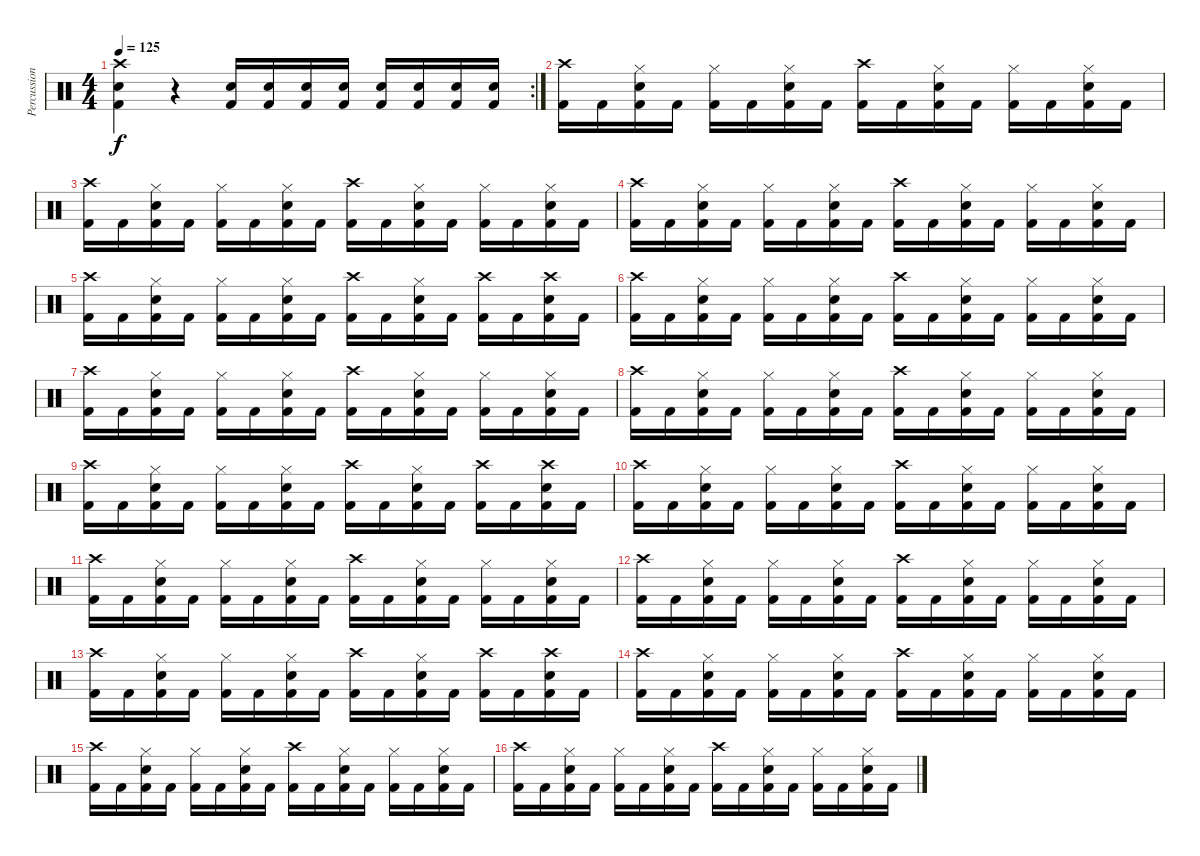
\track ("Percussion" "Percussion") {instrument percussion}
\staff {score}
\articulation defaults
\rc 2
\ts (4 4)
\tempo 125
\clef neutral
\ks c
("Crash high (hit)" "Snare (hit) 2" "Kick (hit) 2").4{dy f} r.4 ("Snare (hit) 2" "Kick (hit) 2").16 ("Snare (hit) 2" "Kick (hit) 2").16 ("Snare (hit) 2" "Kick (hit) 2").16 ("Snare (hit) 2" "Kick (hit) 2").16 ("Snare (hit) 2" "Kick (hit) 2").16 ("Snare (hit) 2" "Kick (hit) 2").16 ("Snare (hit) 2" "Kick (hit) 2").16 ("Snare (hit) 2" "Kick (hit) 2").16 |
("Crash high (hit)" "Kick (hit) 2").16 "Kick (hit) 2".16 ("Hi-Hat (closed)" "Snare (hit) 2" "Kick (hit) 2").16 "Kick (hit) 2".16 ("Hi-Hat (closed)" "Kick (hit) 2").16 "Kick (hit) 2".16 ("Hi-Hat (closed)" "Snare (hit) 2" "Kick (hit) 2").16 "Kick (hit) 2".16 ("Crash high (hit)" "Kick (hit) 2").16 "Kick (hit) 2".16 ("Hi-Hat (closed)" "Snare (hit) 2" "Kick (hit) 2").16 "Kick (hit) 2".16 ("Hi-Hat (closed)" "Kick (hit) 2").16 "Kick (hit) 2".16 ("Hi-Hat (closed)" "Snare (hit) 2" "Kick (hit) 2").16 "Kick (hit) 2".16 |
("Crash high (hit)" "Kick (hit) 2").16 "Kick (hit) 2".16 ("Hi-Hat (closed)" "Snare (hit) 2" "Kick (hit) 2").16 "Kick (hit) 2".16 ("Hi-Hat (closed)" "Kick (hit) 2").16 "Kick (hit) 2".16 ("Hi-Hat (closed)" "Snare (hit) 2" "Kick (hit) 2").16 "Kick (hit) 2".16 ("Crash high (hit)" "Kick (hit) 2").16 "Kick (hit) 2".16 ("Hi-Hat (closed)" "Snare (hit) 2" "Kick (hit) 2").16 "Kick (hit) 2".16 ("Hi-Hat (closed)" "Kick (hit) 2").16 "Kick (hit) 2".16 ("Hi-Hat (closed)" "Snare (hit) 2" "Kick (hit) 2").16 "Kick (hit) 2".16 |
("Crash high (hit)" "Kick (hit) 2").16 "Kick (hit) 2".16 ("Hi-Hat (closed)" "Snare (hit) 2" "Kick (hit) 2").16 "Kick (hit) 2".16 ("Hi-Hat (closed)" "Kick (hit) 2").16 "Kick (hit) 2".16 ("Hi-Hat (closed)" "Snare (hit) 2" "Kick (hit) 2").16 "Kick (hit) 2".16 ("Crash high (hit)" "Kick (hit) 2").16 "Kick (hit) 2".16 ("Hi-Hat (closed)" "Snare (hit) 2" "Kick (hit) 2").16 "Kick (hit) 2".16 ("Hi-Hat (closed)" "Kick (hit) 2").16 "Kick (hit) 2".16 ("Hi-Hat (closed)" "Snare (hit) 2" "Kick (hit) 2").16 "Kick (hit) 2".16 |
("Crash high (hit)" "Kick (hit) 2").16 "Kick (hit) 2".16 ("Hi-Hat (closed)" "Snare (hit) 2" "Kick (hit) 2").16 "Kick (hit) 2".16 ("Hi-Hat (closed)" "Kick (hit) 2").16 "Kick (hit) 2".16 ("Hi-Hat (closed)" "Snare (hit) 2" "Kick (hit) 2").16 "Kick (hit) 2".16 ("Crash high (hit)" "Kick (hit) 2").16 "Kick (hit) 2".16 ("Hi-Hat (closed)" "Snare (hit) 2" "Kick (hit) 2").16 "Kick (hit) 2".16 ("Crash high (hit)" "Kick (hit) 2").16 "Kick (hit) 2".16 ("Crash high (hit)" "Snare (hit) 2" "Kick (hit) 2").16 "Kick (hit) 2".16 |
("Crash high (hit)" "Kick (hit) 2").16 "Kick (hit) 2".16 ("Hi-Hat (closed)" "Snare (hit) 2" "Kick (hit) 2").16 "Kick (hit) 2".16 ("Hi-Hat (closed)" "Kick (hit) 2").16 "Kick (hit) 2".16 ("Hi-Hat (closed)" "Snare (hit) 2" "Kick (hit) 2").16 "Kick (hit) 2".16 ("Crash high (hit)" "Kick (hit) 2").16 "Kick (hit) 2".16 ("Hi-Hat (closed)" "Snare (hit) 2" "Kick (hit) 2").16 "Kick (hit) 2".16 ("Hi-Hat (closed)" "Kick (hit) 2").16 "Kick (hit) 2".16 ("Hi-Hat (closed)" "Snare (hit) 2" "Kick (hit) 2").16 "Kick (hit) 2".16 |
("Crash high (hit)" "Kick (hit) 2").16 "Kick (hit) 2".16 ("Hi-Hat (closed)" "Snare (hit) 2" "Kick (hit) 2").16 "Kick (hit) 2".16 ("Hi-Hat (closed)" "Kick (hit) 2").16 "Kick (hit) 2".16 ("Hi-Hat (closed)" "Snare (hit) 2" "Kick (hit) 2").16 "Kick (hit) 2".16 ("Crash high (hit)" "Kick (hit) 2").16 "Kick (hit) 2".16 ("Hi-Hat (closed)" "Snare (hit) 2" "Kick (hit) 2").16 "Kick (hit) 2".16 ("Hi-Hat (closed)" "Kick (hit) 2").16 "Kick (hit) 2".16 ("Hi-Hat (closed)" "Snare (hit) 2" "Kick (hit) 2").16 "Kick (hit) 2".16 |
("Crash high (hit)" "Kick (hit) 2").16 "Kick (hit) 2".16 ("Hi-Hat (closed)" "Snare (hit) 2" "Kick (hit) 2").16 "Kick (hit) 2".16 ("Hi-Hat (closed)" "Kick (hit) 2").16 "Kick (hit) 2".16 ("Hi-Hat (closed)" "Snare (hit) 2" "Kick (hit) 2").16 "Kick (hit) 2".16 ("Crash high (hit)" "Kick (hit) 2").16 "Kick (hit) 2".16 ("Hi-Hat (closed)" "Snare (hit) 2" "Kick (hit) 2").16 "Kick (hit) 2".16 ("Hi-Hat (closed)" "Kick (hit) 2").16 "Kick (hit) 2".16 ("Hi-Hat (closed)" "Snare (hit) 2" "Kick (hit) 2").16 "Kick (hit) 2".16 |
("Crash high (hit)" "Kick (hit) 2").16 "Kick (hit) 2".16 ("Hi-Hat (closed)" "Snare (hit) 2" "Kick (hit) 2").16 "Kick (hit) 2".16 ("Hi-Hat (closed)" "Kick (hit) 2").16 "Kick (hit) 2".16 ("Hi-Hat (closed)" "Snare (hit) 2" "Kick (hit) 2").16 "Kick (hit) 2".16 ("Crash high (hit)" "Kick (hit) 2").16 "Kick (hit) 2".16 ("Hi-Hat (closed)" "Snare (hit) 2" "Kick (hit) 2").16 "Kick (hit) 2".16 ("Crash high (hit)" "Kick (hit) 2").16 "Kick (hit) 2".16 ("Crash high (hit)" "Snare (hit) 2" "Kick (hit) 2").16 "Kick (hit) 2".16 |
("Crash high (hit)" "Kick (hit) 2").16 "Kick (hit) 2".16 ("Hi-Hat (closed)" "Snare (hit) 2" "Kick (hit) 2").16 "Kick (hit) 2".16 ("Hi-Hat (closed)" "Kick (hit) 2").16 "Kick (hit) 2".16 ("Hi-Hat (closed)" "Snare (hit) 2" "Kick (hit) 2").16 "Kick (hit) 2".16 ("Crash high (hit)" "Kick (hit) 2").16 "Kick (hit) 2".16 ("Hi-Hat (closed)" "Snare (hit) 2" "Kick (hit) 2").16 "Kick (hit) 2".16 ("Hi-Hat (closed)" "Kick (hit) 2").16 "Kick (hit) 2".16 ("Hi-Hat (closed)" "Snare (hit) 2" "Kick (hit) 2").16 "Kick (hit) 2".16 |
("Crash high (hit)" "Kick (hit) 2").16 "Kick (hit) 2".16 ("Hi-Hat (closed)" "Snare (hit) 2" "Kick (hit) 2").16 "Kick (hit) 2".16 ("Hi-Hat (closed)" "Kick (hit) 2").16 "Kick (hit) 2".16 ("Hi-Hat (closed)" "Snare (hit) 2" "Kick (hit) 2").16 "Kick (hit) 2".16 ("Crash high (hit)" "Kick (hit) 2").16 "Kick (hit) 2".16 ("Hi-Hat (closed)" "Snare (hit) 2" "Kick (hit) 2").16 "Kick (hit) 2".16 ("Hi-Hat (closed)" "Kick (hit) 2").16 "Kick (hit) 2".16 ("Hi-Hat (closed)" "Snare (hit) 2" "Kick (hit) 2").16 "Kick (hit) 2".16 |
("Crash high (hit)" "Kick (hit) 2").16 "Kick (hit) 2".16 ("Hi-Hat (closed)" "Snare (hit) 2" "Kick (hit) 2").16 "Kick (hit) 2".16 ("Hi-Hat (closed)" "Kick (hit) 2").16 "Kick (hit) 2".16 ("Hi-Hat (closed)" "Snare (hit) 2" "Kick (hit) 2").16 "Kick (hit) 2".16 ("Crash high (hit)" "Kick (hit) 2").16 "Kick (hit) 2".16 ("Hi-Hat (closed)" "Snare (hit) 2" "Kick (hit) 2").16 "Kick (hit) 2".16 ("Hi-Hat (closed)" "Kick (hit) 2").16 "Kick (hit) 2".16 ("Hi-Hat (closed)" "Snare (hit) 2" "Kick (hit) 2").16 "Kick (hit) 2".16 |
("Crash high (hit)" "Kick (hit) 2").16 "Kick (hit) 2".16 ("Hi-Hat (closed)" "Snare (hit) 2" "Kick (hit) 2").16 "Kick (hit) 2".16 ("Hi-Hat (closed)" "Kick (hit) 2").16 "Kick (hit) 2".16 ("Hi-Hat (closed)" "Snare (hit) 2" "Kick (hit) 2").16 "Kick (hit) 2".16 ("Crash high (hit)" "Kick (hit) 2").16 "Kick (hit) 2".16 ("Hi-Hat (closed)" "Snare (hit) 2" "Kick (hit) 2").16 "Kick (hit) 2".16 ("Crash high (hit)" "Kick (hit) 2").16 "Kick (hit) 2".16 ("Crash high (hit)" "Snare (hit) 2" "Kick (hit) 2").16 "Kick (hit) 2".16 |
("Crash high (hit)" "Kick (hit) 2").16 "Kick (hit) 2".16 ("Hi-Hat (closed)" "Snare (hit) 2" "Kick (hit) 2").16 "Kick (hit) 2".16 ("Hi-Hat (closed)" "Kick (hit) 2").16 "Kick (hit) 2".16 ("Hi-Hat (closed)" "Snare (hit) 2" "Kick (hit) 2").16 "Kick (hit) 2".16 ("Crash high (hit)" "Kick (hit) 2").16 "Kick (hit) 2".16 ("Hi-Hat (closed)" "Snare (hit) 2" "Kick (hit) 2").16 "Kick (hit) 2".16 ("Hi-Hat (closed)" "Kick (hit) 2").16 "Kick (hit) 2".16 ("Hi-Hat (closed)" "Snare (hit) 2" "Kick (hit) 2").16 "Kick (hit) 2".16 |
("Crash high (hit)" "Kick (hit) 2").16 "Kick (hit) 2".16 ("Hi-Hat (closed)" "Snare (hit) 2" "Kick (hit) 2").16 "Kick (hit) 2".16 ("Hi-Hat (closed)" "Kick (hit) 2").16 "Kick (hit) 2".16 ("Hi-Hat (closed)" "Snare (hit) 2" "Kick (hit) 2").16 "Kick (hit) 2".16 ("Crash high (hit)" "Kick (hit) 2").16 "Kick (hit) 2".16 ("Hi-Hat (closed)" "Snare (hit) 2" "Kick (hit) 2").16 "Kick (hit) 2".16 ("Hi-Hat (closed)" "Kick (hit) 2").16 "Kick (hit) 2".16 ("Hi-Hat (closed)" "Snare (hit) 2" "Kick (hit) 2").16 "Kick (hit) 2".16 |
("Crash high (hit)" "Kick (hit) 2").16 "Kick (hit) 2".16 ("Hi-Hat (closed)" "Snare (hit) 2" "Kick (hit) 2").16 "Kick (hit) 2".16 ("Hi-Hat (closed)" "Kick (hit) 2").16 "Kick (hit) 2".16 ("Hi-Hat (closed)" "Snare (hit) 2" "Kick (hit) 2").16 "Kick (hit) 2".16 ("Crash high (hit)" "Kick (hit) 2").16 "Kick (hit) 2".16 ("Hi-Hat (closed)" "Snare (hit) 2" "Kick (hit) 2").16 "Kick (hit) 2".16 ("Hi-Hat (closed)" "Kick (hit) 2").16 "Kick (hit) 2".16 ("Hi-Hat (closed)" "Snare (hit) 2" "Kick (hit) 2").16 "Kick (hit) 2".16
